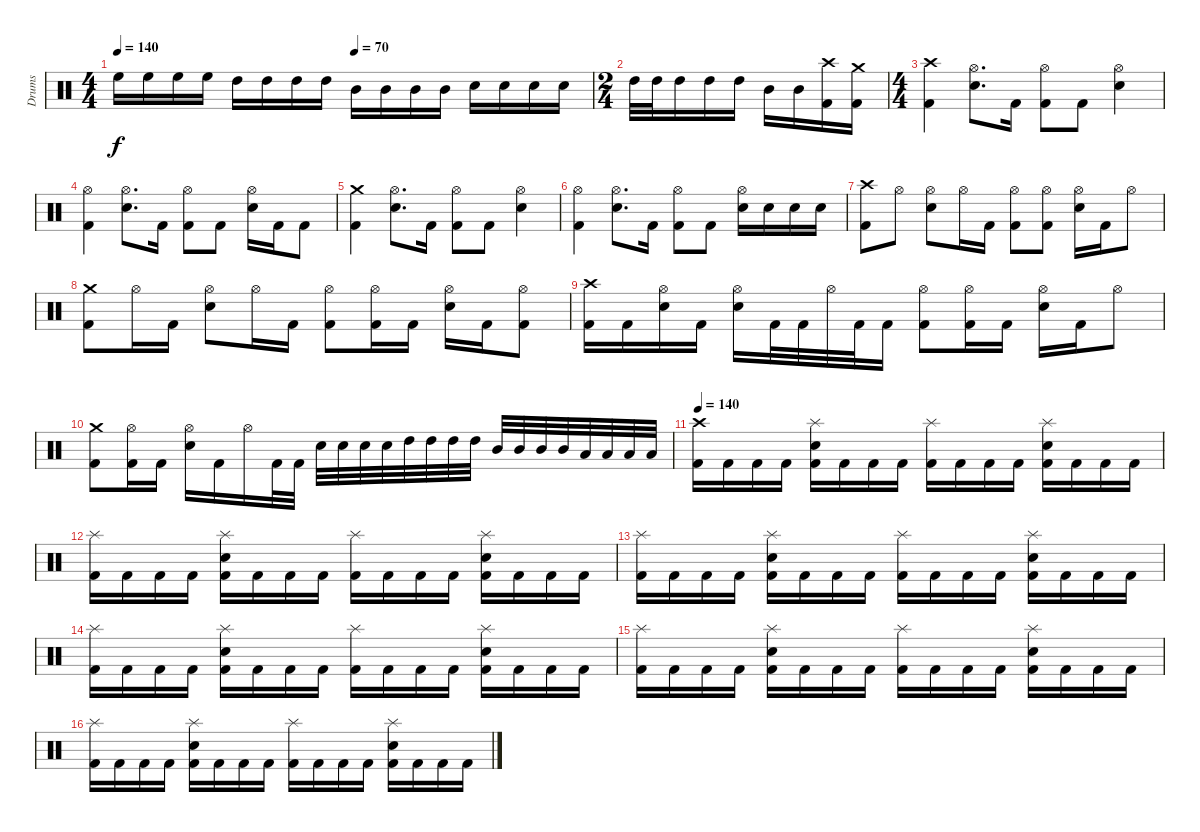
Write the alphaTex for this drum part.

\track ("Drums" "Drums") {instrument percussion}
\staff {score}
\articulation defaults
\ts (4 4)
\tempo 140
\tempo (70 0.5)
\clef neutral
\ks c "High Floor Tom (hit)".16{dy f} "High Floor Tom (hit)".16 "High Floor Tom (hit)".16 "High Floor Tom (hit)".16 "High Tom (hit)".16 "High Tom (hit)".16 "High Tom (hit)".16 "High Tom (hit)".16 "Mid Tom (hit)".16 "Mid Tom (hit)".16 "Mid Tom (hit)".16 "Mid Tom (hit)".16 "Snare (hit) 2".16 "Snare (hit) 2".16 "Snare (hit) 2".16 "Snare (hit) 2".16
|
\ts (2 4)
"High Tom (hit)".32 "High Tom (hit)".32 "High Tom (hit)".16 "High Tom (hit)".16 "High Tom (hit)".16 "Mid Tom (hit)".16 "Mid Tom (hit)".16 ("Crash high (hit)" "Kick (hit) 2").16 ("Crash medium (hit)" "Kick (hit) 2").16 |
\ts (4 4)
("Crash high (hit)" "Kick (hit) 2").4 ("Hi-Hat (open)" "Snare (hit) 2").8{d} "Kick (hit) 2".16 ("Hi-Hat (open)" "Kick (hit) 2").8 "Kick (hit) 2".8 ("Hi-Hat (open)" "Snare (hit) 2").4 |
("Hi-Hat (open)" "Kick (hit) 2").4 ("Hi-Hat (open)" "Snare (hit) 2").8{d} "Kick (hit) 2".16 ("Hi-Hat (open)" "Kick (hit) 2").8 "Kick (hit) 2".8 ("Hi-Hat (open)" "Snare (hit) 2").16 "Kick (hit) 2".16 "Kick (hit) 2".8 |
("Crash medium (hit)" "Kick (hit) 2").4 ("Hi-Hat (open)" "Snare (hit) 2").8{d} "Kick (hit) 2".16 ("Hi-Hat (open)" "Kick (hit) 2").8 "Kick (hit) 2".8 ("Hi-Hat (open)" "Snare (hit) 2").4 |
("Hi-Hat (open)" "Kick (hit) 2").4 ("Hi-Hat (open)" "Snare (hit) 2").8{d} "Kick (hit) 2".16 ("Hi-Hat (open)" "Kick (hit) 2").8 "Kick (hit) 2".8 ("Hi-Hat (open)" "Snare (hit) 2").16 "Snare (hit) 2".16 "Snare (hit) 2".16 "Snare (hit) 2".16 |
("Crash high (hit)" "Kick (hit) 2").8 "Hi-Hat (open)".8 ("Hi-Hat (open)" "Snare (hit) 2").8 "Hi-Hat (open)".16 "Kick (hit) 2".16 ("Hi-Hat (open)" "Kick (hit) 2").8 ("Hi-Hat (open)" "Kick (hit) 2").8 ("Hi-Hat (open)" "Snare (hit) 2").16 "Kick (hit) 2".16 "Hi-Hat (open)".8 |
("Crash medium (hit)" "Kick (hit) 2").8 "Hi-Hat (open)".16 "Kick (hit) 2".16 ("Hi-Hat (open)" "Snare (hit) 2").8 "Hi-Hat (open)".16 "Kick (hit) 2".16 ("Hi-Hat (open)" "Kick (hit) 2").8 ("Hi-Hat (open)" "Kick (hit) 2").16 "Kick (hit) 2".16 ("Hi-Hat (open)" "Snare (hit) 2").16 "Kick (hit) 2".16 ("Hi-Hat (open)" "Kick (hit) 2").8 |
("Crash high (hit)" "Kick (hit) 2").16 "Kick (hit) 2".16 ("Hi-Hat (open)" "Snare (hit) 2").16 "Kick (hit) 2".16 ("Hi-Hat (open)" "Snare (hit) 2").16 "Kick (hit) 2".32 "Kick (hit) 2".32 "Hi-Hat (open)".32 "Kick (hit) 2".32 "Kick (hit) 2".16 ("Hi-Hat (open)" "Kick (hit) 2").8 ("Hi-Hat (open)" "Kick (hit) 2").16 "Kick (hit) 2".16 ("Hi-Hat (open)" "Snare (hit) 2").16 "Kick (hit) 2".16 "Hi-Hat (open)".8 |
("Crash medium (hit)" "Kick (hit) 2").8 ("Hi-Hat (open)" "Kick (hit) 2").16 "Kick (hit) 2".16 ("Hi-Hat (open)" "Snare (hit) 2").16 "Kick (hit) 2".16 "Hi-Hat (open)".16 "Kick (hit) 2".32 "Kick (hit) 2".32 "Snare (hit) 2".32 "Snare (hit) 2".32 "Snare (hit) 2".32 "Snare (hit) 2".32 "High Tom (hit)".32 "High Tom (hit)".32 "High Tom (hit)".32 "High Tom (hit)".32 "Mid Tom (hit)".32 "Mid Tom (hit)".32 "Mid Tom (hit)".32 "Mid Tom (hit)".32 "Low Tom (hit)".32 "Low Tom (hit)".32 "Low Tom (hit)".32 "Low Tom (hit)".32 |
\tempo 140
("Crash high (hit)" "Kick (hit) 2").16 "Kick (hit) 2".16 "Kick (hit) 2".16 "Kick (hit) 2".16 ("Splash (hit)" "Snare (hit) 2" "Kick (hit) 2").16 "Kick (hit) 2".16 "Kick (hit) 2".16 "Kick (hit) 2".16 ("Splash (hit)" "Kick (hit) 2").16 "Kick (hit) 2".16 "Kick (hit) 2".16 "Kick (hit) 2".16 ("Splash (hit)" "Snare (hit) 2" "Kick (hit) 2").16 "Kick (hit) 2".16 "Kick (hit) 2".16 "Kick (hit) 2".16 |
("Splash (hit)" "Kick (hit) 2").16 "Kick (hit) 2".16 "Kick (hit) 2".16 "Kick (hit) 2".16 ("Splash (hit)" "Snare (hit) 2" "Kick (hit) 2").16 "Kick (hit) 2".16 "Kick (hit) 2".16 "Kick (hit) 2".16 ("Splash (hit)" "Kick (hit) 2").16 "Kick (hit) 2".16 "Kick (hit) 2".16 "Kick (hit) 2".16 ("Splash (hit)" "Snare (hit) 2" "Kick (hit) 2").16 "Kick (hit) 2".16 "Kick (hit) 2".16 "Kick (hit) 2".16 |
("Splash (hit)" "Kick (hit) 2").16 "Kick (hit) 2".16 "Kick (hit) 2".16 "Kick (hit) 2".16 ("Splash (hit)" "Snare (hit) 2" "Kick (hit) 2").16 "Kick (hit) 2".16 "Kick (hit) 2".16 "Kick (hit) 2".16 ("Splash (hit)" "Kick (hit) 2").16 "Kick (hit) 2".16 "Kick (hit) 2".16 "Kick (hit) 2".16 ("Splash (hit)" "Snare (hit) 2" "Kick (hit) 2").16 "Kick (hit) 2".16 "Kick (hit) 2".16 "Kick (hit) 2".16 |
("Splash (hit)" "Kick (hit) 2").16 "Kick (hit) 2".16 "Kick (hit) 2".16 "Kick (hit) 2".16 ("Splash (hit)" "Snare (hit) 2" "Kick (hit) 2").16 "Kick (hit) 2".16 "Kick (hit) 2".16 "Kick (hit) 2".16 ("Splash (hit)" "Kick (hit) 2").16 "Kick (hit) 2".16 "Kick (hit) 2".16 "Kick (hit) 2".16 ("Splash (hit)" "Snare (hit) 2" "Kick (hit) 2").16 "Kick (hit) 2".16 "Kick (hit) 2".16 "Kick (hit) 2".16 |
("Splash (hit)" "Kick (hit) 2").16 "Kick (hit) 2".16 "Kick (hit) 2".16 "Kick (hit) 2".16 ("Splash (hit)" "Snare (hit) 2" "Kick (hit) 2").16 "Kick (hit) 2".16 "Kick (hit) 2".16 "Kick (hit) 2".16 ("Splash (hit)" "Kick (hit) 2").16 "Kick (hit) 2".16 "Kick (hit) 2".16 "Kick (hit) 2".16 ("Splash (hit)" "Snare (hit) 2" "Kick (hit) 2").16 "Kick (hit) 2".16 "Kick (hit) 2".16 "Kick (hit) 2".16 |
("Splash (hit)" "Kick (hit) 2").16 "Kick (hit) 2".16 "Kick (hit) 2".16 "Kick (hit) 2".16 ("Splash (hit)" "Snare (hit) 2" "Kick (hit) 2").16 "Kick (hit) 2".16 "Kick (hit) 2".16 "Kick (hit) 2".16 ("Splash (hit)" "Kick (hit) 2").16 "Kick (hit) 2".16 "Kick (hit) 2".16 "Kick (hit) 2".16 ("Splash (hit)" "Snare (hit) 2" "Kick (hit) 2").16 "Kick (hit) 2".16 "Kick (hit) 2".16 "Kick (hit) 2".16
